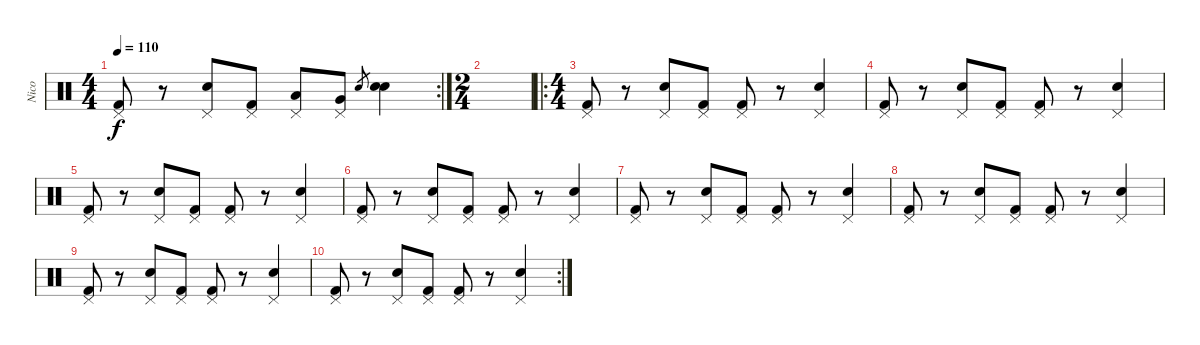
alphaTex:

\track ("Nico" "Nico") {instrument percussion}
\staff {score}
\articulation defaults
\rc 2
\ts (4 4)
\tempo 110
\clef neutral
\ks c
("Pedal Hi-Hat (hit)" "Kick (hit) 2").8{dy f} r.8 ("Pedal Hi-Hat (hit)" "Snare (hit) 2").8 ("Pedal Hi-Hat (hit)" "Kick (hit) 2").8 ("Pedal Hi-Hat (hit)" "Low Floor Tom (hit)").8 ("Pedal Hi-Hat (hit)" "Very Low Tom (hit)").8 "Snare (hit) 2".8{gr} ("Electric Snare (hit)" "Snare (hit) 2").4 |
\ts (2 4)
|
\ro
\ts (4 4)
("Pedal Hi-Hat (hit)" "Kick (hit) 2").8 r.8 ("Pedal Hi-Hat (hit)" "Snare (hit) 2").8 ("Pedal Hi-Hat (hit)" "Kick (hit) 2").8 ("Pedal Hi-Hat (hit)" "Kick (hit) 2").8 r.8 ("Pedal Hi-Hat (hit)" "Snare (hit) 2").4 |
("Pedal Hi-Hat (hit)" "Kick (hit) 2").8 r.8 ("Pedal Hi-Hat (hit)" "Snare (hit) 2").8 ("Pedal Hi-Hat (hit)" "Kick (hit) 2").8 ("Pedal Hi-Hat (hit)" "Kick (hit) 2").8 r.8 ("Pedal Hi-Hat (hit)" "Snare (hit) 2").4 |
("Pedal Hi-Hat (hit)" "Kick (hit) 2").8 r.8 ("Pedal Hi-Hat (hit)" "Snare (hit) 2").8 ("Pedal Hi-Hat (hit)" "Kick (hit) 2").8 ("Pedal Hi-Hat (hit)" "Kick (hit) 2").8 r.8 ("Pedal Hi-Hat (hit)" "Snare (hit) 2").4 |
("Pedal Hi-Hat (hit)" "Kick (hit) 2").8 r.8 ("Pedal Hi-Hat (hit)" "Snare (hit) 2").8 ("Pedal Hi-Hat (hit)" "Kick (hit) 2").8 ("Pedal Hi-Hat (hit)" "Kick (hit) 2").8 r.8 ("Pedal Hi-Hat (hit)" "Snare (hit) 2").4 |
("Pedal Hi-Hat (hit)" "Kick (hit) 2").8 r.8 ("Pedal Hi-Hat (hit)" "Snare (hit) 2").8 ("Pedal Hi-Hat (hit)" "Kick (hit) 2").8 ("Pedal Hi-Hat (hit)" "Kick (hit) 2").8 r.8 ("Pedal Hi-Hat (hit)" "Snare (hit) 2").4 |
("Pedal Hi-Hat (hit)" "Kick (hit) 2").8 r.8 ("Pedal Hi-Hat (hit)" "Snare (hit) 2").8 ("Pedal Hi-Hat (hit)" "Kick (hit) 2").8 ("Pedal Hi-Hat (hit)" "Kick (hit) 2").8 r.8 ("Pedal Hi-Hat (hit)" "Snare (hit) 2").4 |
("Pedal Hi-Hat (hit)" "Kick (hit) 2").8 r.8 ("Pedal Hi-Hat (hit)" "Snare (hit) 2").8 ("Pedal Hi-Hat (hit)" "Kick (hit) 2").8 ("Pedal Hi-Hat (hit)" "Kick (hit) 2").8 r.8 ("Pedal Hi-Hat (hit)" "Snare (hit) 2").4 |
\rc 2
("Pedal Hi-Hat (hit)" "Kick (hit) 2").8 r.8 ("Pedal Hi-Hat (hit)" "Snare (hit) 2").8 ("Pedal Hi-Hat (hit)" "Kick (hit) 2").8 ("Pedal Hi-Hat (hit)" "Kick (hit) 2").8 r.8 ("Pedal Hi-Hat (hit)" "Snare (hit) 2").4
